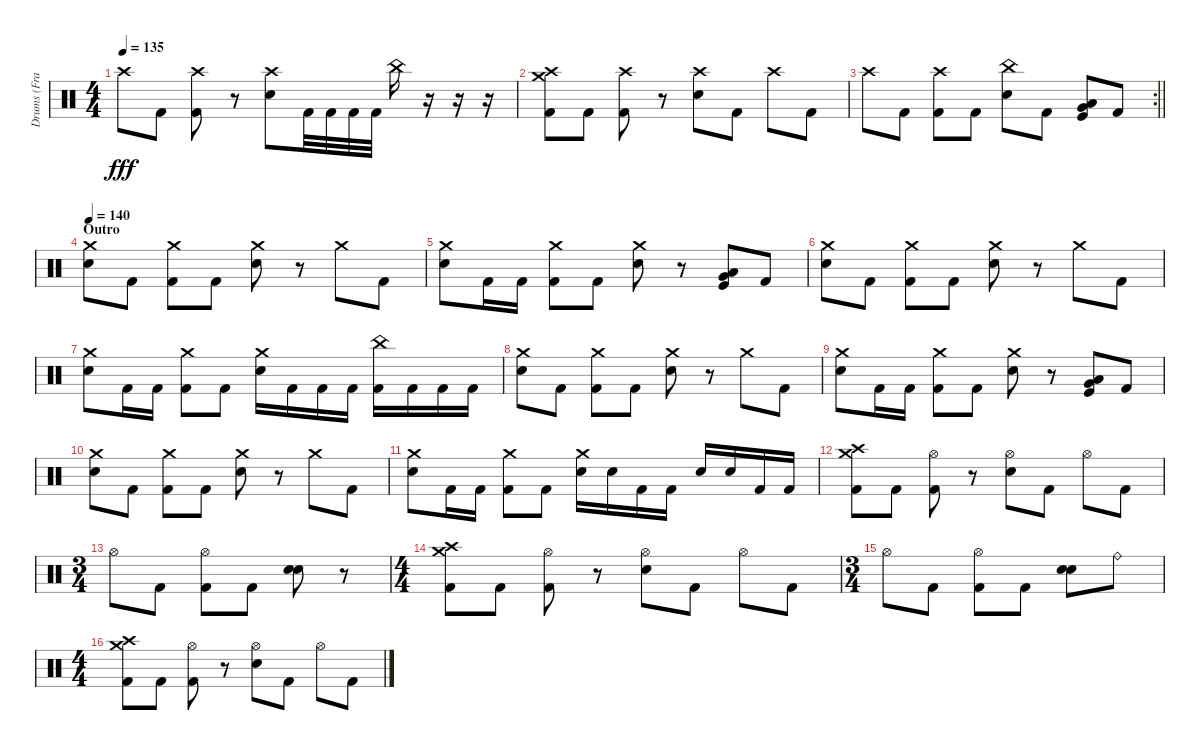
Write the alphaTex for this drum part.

\track ("Drums (Franky)" "Drums (Fra") {instrument percussion}
\staff {score}
\articulation defaults
\ts (4 4)
\tempo 135
\clef neutral
\ks c "Crash high (hit)".8{dy fff} "Kick (hit) 2".8
("Crash high (hit)" "Kick (hit) 2").8 r.8 ("Crash high (hit)" "Electric Snare (hit)").8 "Kick (hit) 2".32 "Kick (hit) 2".32 "Kick (hit) 2".32 "Kick (hit) 2".32 "China (hit)".16 r.16 r.16 r.16 |
("Crash medium (hit)" "Crash high (hit)" "Kick (hit) 2").8 "Kick (hit) 2".8 ("Crash high (hit)" "Kick (hit) 2").8 r.8 ("Crash high (hit)" "Electric Snare (hit)").8 "Kick (hit) 2".8 "Crash high (hit)".8 "Kick (hit) 2".8 |
\rc 2
\barLineRight lightlight "Crash high (hit)".8 "Kick (hit) 2".8
("Crash high (hit)" "Kick (hit) 2").8 "Kick (hit) 2".8 ("China (hit)" "Electric Snare (hit)").8 "Kick (hit) 2".8 ("Low Tom (hit)" "Very Low Tom (hit)" "Kick (hit)").8 "Kick (hit) 2".8 |
\section ("" "Outro")
\tempo 140
("Crash medium (hit)" "Electric Snare (hit)").8 "Kick (hit) 2".8 ("Crash medium (hit)" "Kick (hit) 2").8 "Kick (hit) 2".8 ("Crash medium (hit)" "Electric Snare (hit)").8 r.8 "Crash medium (hit)".8 "Kick (hit) 2".8 |
("Crash medium (hit)" "Electric Snare (hit)").8 "Kick (hit) 2".16 "Kick (hit) 2".16 ("Crash medium (hit)" "Kick (hit) 2").8 "Kick (hit) 2".8 ("Crash medium (hit)" "Electric Snare (hit)").8 r.8 ("Low Tom (hit)" "Very Low Tom (hit)" "Kick (hit)").8 "Kick (hit) 2".8 |
("Crash medium (hit)" "Electric Snare (hit)").8 "Kick (hit) 2".8 ("Crash medium (hit)" "Kick (hit) 2").8 "Kick (hit) 2".8 ("Crash medium (hit)" "Electric Snare (hit)").8 r.8 "Crash medium (hit)".8 "Kick (hit) 2".8 |
("Crash medium (hit)" "Electric Snare (hit)").8 "Kick (hit) 2".16 "Kick (hit) 2".16 ("Crash medium (hit)" "Kick (hit) 2").8 "Kick (hit) 2".8 ("Crash medium (hit)" "Electric Snare (hit)").16 "Kick (hit) 2".16 "Kick (hit) 2".16 "Kick (hit) 2".16 ("China (hit)" "Kick (hit) 2").16 "Kick (hit) 2".16 "Kick (hit) 2".16 "Kick (hit) 2".16 |
("Crash medium (hit)" "Electric Snare (hit)").8 "Kick (hit) 2".8 ("Crash medium (hit)" "Kick (hit) 2").8 "Kick (hit) 2".8 ("Crash medium (hit)" "Electric Snare (hit)").8 r.8 "Crash medium (hit)".8 "Kick (hit) 2".8 |
("Crash medium (hit)" "Electric Snare (hit)").8 "Kick (hit) 2".16 "Kick (hit) 2".16 ("Crash medium (hit)" "Kick (hit) 2").8 "Kick (hit) 2".8 ("Crash medium (hit)" "Electric Snare (hit)").8 r.8 ("Low Tom (hit)" "Very Low Tom (hit)" "Kick (hit)").8 "Kick (hit) 2".8 |
("Crash medium (hit)" "Electric Snare (hit)").8 "Kick (hit) 2".8 ("Crash medium (hit)" "Kick (hit) 2").8 "Kick (hit) 2".8 ("Crash medium (hit)" "Electric Snare (hit)").8 r.8 "Crash medium (hit)".8 "Kick (hit) 2".8 |
("Crash medium (hit)" "Electric Snare (hit)").8 "Kick (hit) 2".16 "Kick (hit) 2".16 ("Crash medium (hit)" "Kick (hit) 2").8 "Kick (hit) 2".8 ("Crash medium (hit)" "Electric Snare (hit)").16 "Electric Snare (hit)".16 "Kick (hit) 2".16 "Kick (hit) 2".16 "Electric Snare (hit)".16 "Electric Snare (hit)".16 "Kick (hit) 2".16 "Kick (hit) 2".16 |
("Crash medium (hit)" "Crash high (hit)" "Kick (hit) 2").8 "Kick (hit) 2".8 ("Hi-Hat (open)" "Kick (hit) 2").8 r.8 ("Hi-Hat (open)" "Electric Snare (hit)").8 "Kick (hit) 2".8 "Hi-Hat (open)".8 "Kick (hit) 2".8 |
\ts (3 4)
"Hi-Hat (open)".8 "Kick (hit) 2".8 ("Hi-Hat (open)" "Kick (hit) 2").8 "Kick (hit) 2".8 ("Electric Snare (hit)" "Electric Snare (hit)").8{bd 240} r.8 |
\ts (4 4)
("Crash medium (hit)" "Crash high (hit)" "Kick (hit) 2").8 "Kick (hit) 2".8 ("Hi-Hat (open)" "Kick (hit) 2").8 r.8 ("Hi-Hat (open)" "Electric Snare (hit)").8 "Kick (hit) 2".8 "Hi-Hat (open)".8 "Kick (hit) 2".8 |
\ts (3 4)
"Hi-Hat (open)".8 "Kick (hit) 2".8 ("Hi-Hat (open)" "Kick (hit) 2").8 "Kick (hit) 2".8 ("Electric Snare (hit)" "Electric Snare (hit)").8{bd 240} "Ride (bell)".8 |
\ts (4 4)
("Crash medium (hit)" "Crash high (hit)" "Kick (hit) 2").8 "Kick (hit) 2".8 ("Hi-Hat (open)" "Kick (hit) 2").8 r.8 ("Hi-Hat (open)" "Electric Snare (hit)").8 "Kick (hit) 2".8 "Hi-Hat (open)".8 "Kick (hit) 2".8
